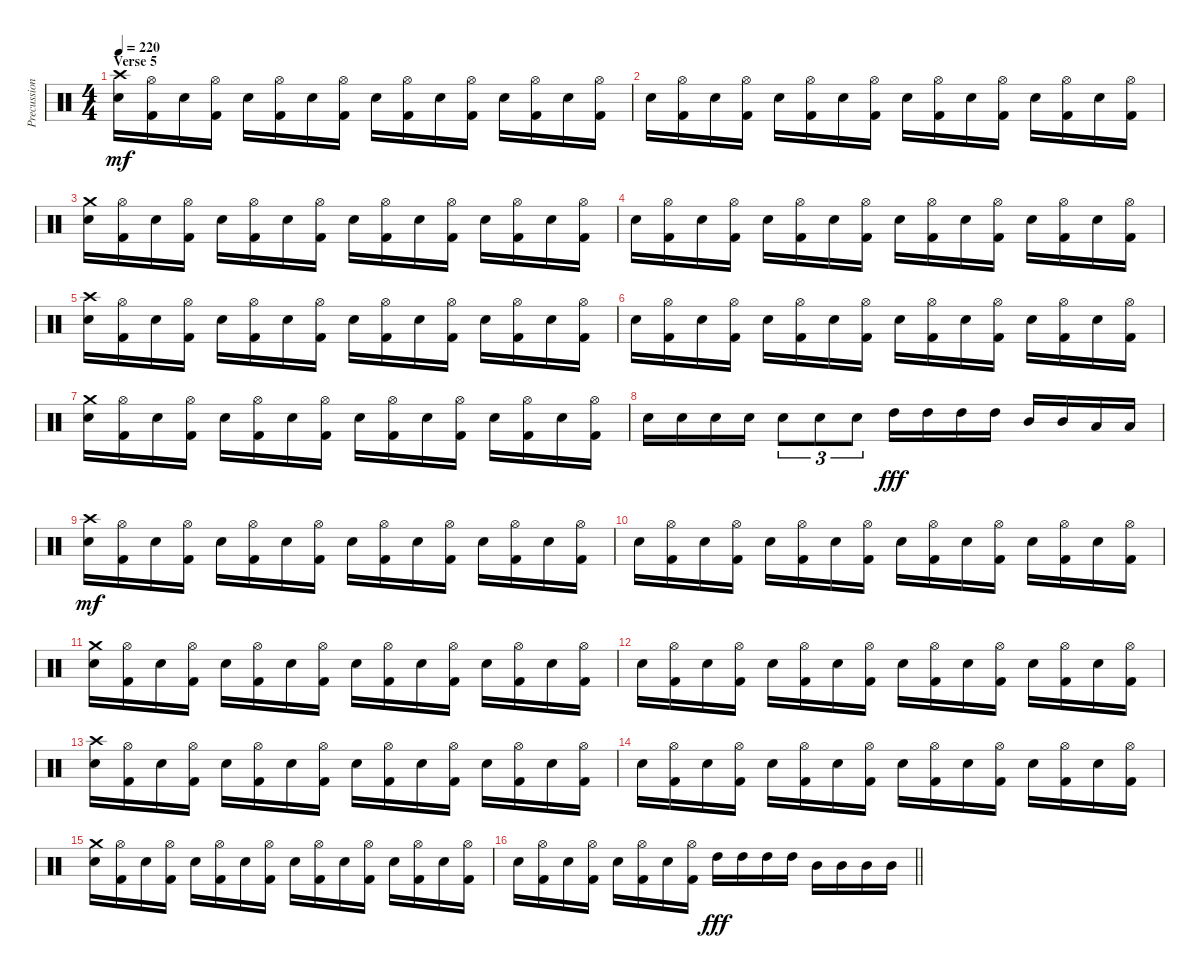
\track ("Precussion" "Precussion") {instrument percussion}
\staff {score}
\articulation defaults
\ts (4 4)
\section ("" "Verse 5")
\tempo 220
\clef neutral
\ks c
("Crash high (hit)" "Electric Snare (hit)").16{dy mf} ("Hi-Hat (open)" "Kick (hit) 2").16 "Electric Snare (hit)".16 ("Hi-Hat (open)" "Kick (hit) 2").16 "Electric Snare (hit)".16 ("Hi-Hat (open)" "Kick (hit) 2").16 "Electric Snare (hit)".16 ("Hi-Hat (open)" "Kick (hit) 2").16 "Electric Snare (hit)".16 ("Hi-Hat (open)" "Kick (hit) 2").16 "Electric Snare (hit)".16 ("Hi-Hat (open)" "Kick (hit) 2").16 "Electric Snare (hit)".16 ("Hi-Hat (open)" "Kick (hit) 2").16 "Electric Snare (hit)".16 ("Hi-Hat (open)" "Kick (hit) 2").16 |
"Electric Snare (hit)".16 ("Hi-Hat (open)" "Kick (hit) 2").16 "Electric Snare (hit)".16 ("Hi-Hat (open)" "Kick (hit) 2").16 "Electric Snare (hit)".16 ("Hi-Hat (open)" "Kick (hit) 2").16 "Electric Snare (hit)".16 ("Hi-Hat (open)" "Kick (hit) 2").16 "Electric Snare (hit)".16 ("Hi-Hat (open)" "Kick (hit) 2").16 "Electric Snare (hit)".16 ("Hi-Hat (open)" "Kick (hit) 2").16 "Electric Snare (hit)".16 ("Hi-Hat (open)" "Kick (hit) 2").16 "Electric Snare (hit)".16 ("Hi-Hat (open)" "Kick (hit) 2").16 |
("Crash medium (hit)" "Electric Snare (hit)").16 ("Hi-Hat (open)" "Kick (hit) 2").16 "Electric Snare (hit)".16 ("Hi-Hat (open)" "Kick (hit) 2").16 "Electric Snare (hit)".16 ("Hi-Hat (open)" "Kick (hit) 2").16 "Electric Snare (hit)".16 ("Hi-Hat (open)" "Kick (hit) 2").16 "Electric Snare (hit)".16 ("Hi-Hat (open)" "Kick (hit) 2").16 "Electric Snare (hit)".16 ("Hi-Hat (open)" "Kick (hit) 2").16 "Electric Snare (hit)".16 ("Hi-Hat (open)" "Kick (hit) 2").16 "Electric Snare (hit)".16 ("Hi-Hat (open)" "Kick (hit) 2").16 |
"Electric Snare (hit)".16 ("Hi-Hat (open)" "Kick (hit) 2").16 "Electric Snare (hit)".16 ("Hi-Hat (open)" "Kick (hit) 2").16 "Electric Snare (hit)".16 ("Hi-Hat (open)" "Kick (hit) 2").16 "Electric Snare (hit)".16 ("Hi-Hat (open)" "Kick (hit) 2").16 "Electric Snare (hit)".16 ("Hi-Hat (open)" "Kick (hit) 2").16 "Electric Snare (hit)".16 ("Hi-Hat (open)" "Kick (hit) 2").16 "Electric Snare (hit)".16 ("Hi-Hat (open)" "Kick (hit) 2").16 "Electric Snare (hit)".16 ("Hi-Hat (open)" "Kick (hit) 2").16 |
("Crash high (hit)" "Electric Snare (hit)").16 ("Hi-Hat (open)" "Kick (hit) 2").16 "Electric Snare (hit)".16 ("Hi-Hat (open)" "Kick (hit) 2").16 "Electric Snare (hit)".16 ("Hi-Hat (open)" "Kick (hit) 2").16 "Electric Snare (hit)".16 ("Hi-Hat (open)" "Kick (hit) 2").16 "Electric Snare (hit)".16 ("Hi-Hat (open)" "Kick (hit) 2").16 "Electric Snare (hit)".16 ("Hi-Hat (open)" "Kick (hit) 2").16 "Electric Snare (hit)".16 ("Hi-Hat (open)" "Kick (hit) 2").16 "Electric Snare (hit)".16 ("Hi-Hat (open)" "Kick (hit) 2").16 |
"Electric Snare (hit)".16 ("Hi-Hat (open)" "Kick (hit) 2").16 "Electric Snare (hit)".16 ("Hi-Hat (open)" "Kick (hit) 2").16 "Electric Snare (hit)".16 ("Hi-Hat (open)" "Kick (hit) 2").16 "Electric Snare (hit)".16 ("Hi-Hat (open)" "Kick (hit) 2").16 "Electric Snare (hit)".16 ("Hi-Hat (open)" "Kick (hit) 2").16 "Electric Snare (hit)".16 ("Hi-Hat (open)" "Kick (hit) 2").16 "Electric Snare (hit)".16 ("Hi-Hat (open)" "Kick (hit) 2").16 "Electric Snare (hit)".16 ("Hi-Hat (open)" "Kick (hit) 2").16 |
("Crash medium (hit)" "Electric Snare (hit)").16 ("Hi-Hat (open)" "Kick (hit) 2").16 "Electric Snare (hit)".16 ("Hi-Hat (open)" "Kick (hit) 2").16 "Electric Snare (hit)".16 ("Hi-Hat (open)" "Kick (hit) 2").16 "Electric Snare (hit)".16 ("Hi-Hat (open)" "Kick (hit) 2").16 "Electric Snare (hit)".16 ("Hi-Hat (open)" "Kick (hit) 2").16 "Electric Snare (hit)".16 ("Hi-Hat (open)" "Kick (hit) 2").16 "Electric Snare (hit)".16 ("Hi-Hat (open)" "Kick (hit) 2").16 "Electric Snare (hit)".16 ("Hi-Hat (open)" "Kick (hit) 2").16 |
"Electric Snare (hit)".16 "Electric Snare (hit)".16 "Electric Snare (hit)".16 "Electric Snare (hit)".16 "Electric Snare (hit)".8{tu (3 2)} "Electric Snare (hit)".8{tu (3 2)} "Electric Snare (hit)".8{tu (3 2)} "High Tom (hit)".16{dy fff} "High Tom (hit)".16 "High Tom (hit)".16 "High Tom (hit)".16 "Mid Tom (hit)".16 "Mid Tom (hit)".16 "Low Tom (hit)".16 "Low Tom (hit)".16 |
("Crash high (hit)" "Electric Snare (hit)").16{dy mf} ("Hi-Hat (open)" "Kick (hit) 2").16 "Electric Snare (hit)".16 ("Hi-Hat (open)" "Kick (hit) 2").16 "Electric Snare (hit)".16 ("Hi-Hat (open)" "Kick (hit) 2").16 "Electric Snare (hit)".16 ("Hi-Hat (open)" "Kick (hit) 2").16 "Electric Snare (hit)".16 ("Hi-Hat (open)" "Kick (hit) 2").16 "Electric Snare (hit)".16 ("Hi-Hat (open)" "Kick (hit) 2").16 "Electric Snare (hit)".16 ("Hi-Hat (open)" "Kick (hit) 2").16 "Electric Snare (hit)".16 ("Hi-Hat (open)" "Kick (hit) 2").16 |
"Electric Snare (hit)".16 ("Hi-Hat (open)" "Kick (hit) 2").16 "Electric Snare (hit)".16 ("Hi-Hat (open)" "Kick (hit) 2").16 "Electric Snare (hit)".16 ("Hi-Hat (open)" "Kick (hit) 2").16 "Electric Snare (hit)".16 ("Hi-Hat (open)" "Kick (hit) 2").16 "Electric Snare (hit)".16 ("Hi-Hat (open)" "Kick (hit) 2").16 "Electric Snare (hit)".16 ("Hi-Hat (open)" "Kick (hit) 2").16 "Electric Snare (hit)".16 ("Hi-Hat (open)" "Kick (hit) 2").16 "Electric Snare (hit)".16 ("Hi-Hat (open)" "Kick (hit) 2").16 |
("Crash medium (hit)" "Electric Snare (hit)").16 ("Hi-Hat (open)" "Kick (hit) 2").16 "Electric Snare (hit)".16 ("Hi-Hat (open)" "Kick (hit) 2").16 "Electric Snare (hit)".16 ("Hi-Hat (open)" "Kick (hit) 2").16 "Electric Snare (hit)".16 ("Hi-Hat (open)" "Kick (hit) 2").16 "Electric Snare (hit)".16 ("Hi-Hat (open)" "Kick (hit) 2").16 "Electric Snare (hit)".16 ("Hi-Hat (open)" "Kick (hit) 2").16 "Electric Snare (hit)".16 ("Hi-Hat (open)" "Kick (hit) 2").16 "Electric Snare (hit)".16 ("Hi-Hat (open)" "Kick (hit) 2").16 |
"Electric Snare (hit)".16 ("Hi-Hat (open)" "Kick (hit) 2").16 "Electric Snare (hit)".16 ("Hi-Hat (open)" "Kick (hit) 2").16 "Electric Snare (hit)".16 ("Hi-Hat (open)" "Kick (hit) 2").16 "Electric Snare (hit)".16 ("Hi-Hat (open)" "Kick (hit) 2").16 "Electric Snare (hit)".16 ("Hi-Hat (open)" "Kick (hit) 2").16 "Electric Snare (hit)".16 ("Hi-Hat (open)" "Kick (hit) 2").16 "Electric Snare (hit)".16 ("Hi-Hat (open)" "Kick (hit) 2").16 "Electric Snare (hit)".16 ("Hi-Hat (open)" "Kick (hit) 2").16 |
("Crash high (hit)" "Electric Snare (hit)").16 ("Hi-Hat (open)" "Kick (hit) 2").16 "Electric Snare (hit)".16 ("Hi-Hat (open)" "Kick (hit) 2").16 "Electric Snare (hit)".16 ("Hi-Hat (open)" "Kick (hit) 2").16 "Electric Snare (hit)".16 ("Hi-Hat (open)" "Kick (hit) 2").16 "Electric Snare (hit)".16 ("Hi-Hat (open)" "Kick (hit) 2").16 "Electric Snare (hit)".16 ("Hi-Hat (open)" "Kick (hit) 2").16 "Electric Snare (hit)".16 ("Hi-Hat (open)" "Kick (hit) 2").16 "Electric Snare (hit)".16 ("Hi-Hat (open)" "Kick (hit) 2").16 |
"Electric Snare (hit)".16 ("Hi-Hat (open)" "Kick (hit) 2").16 "Electric Snare (hit)".16 ("Hi-Hat (open)" "Kick (hit) 2").16 "Electric Snare (hit)".16 ("Hi-Hat (open)" "Kick (hit) 2").16 "Electric Snare (hit)".16 ("Hi-Hat (open)" "Kick (hit) 2").16 "Electric Snare (hit)".16 ("Hi-Hat (open)" "Kick (hit) 2").16 "Electric Snare (hit)".16 ("Hi-Hat (open)" "Kick (hit) 2").16 "Electric Snare (hit)".16 ("Hi-Hat (open)" "Kick (hit) 2").16 "Electric Snare (hit)".16 ("Hi-Hat (open)" "Kick (hit) 2").16 |
("Crash medium (hit)" "Electric Snare (hit)").16 ("Hi-Hat (open)" "Kick (hit) 2").16 "Electric Snare (hit)".16 ("Hi-Hat (open)" "Kick (hit) 2").16 "Electric Snare (hit)".16 ("Hi-Hat (open)" "Kick (hit) 2").16 "Electric Snare (hit)".16 ("Hi-Hat (open)" "Kick (hit) 2").16 "Electric Snare (hit)".16 ("Hi-Hat (open)" "Kick (hit) 2").16 "Electric Snare (hit)".16 ("Hi-Hat (open)" "Kick (hit) 2").16 "Electric Snare (hit)".16 ("Hi-Hat (open)" "Kick (hit) 2").16 "Electric Snare (hit)".16 ("Hi-Hat (open)" "Kick (hit) 2").16 |
\barLineRight lightlight "Electric Snare (hit)".16
("Hi-Hat (open)" "Kick (hit) 2").16 "Electric Snare (hit)".16 ("Hi-Hat (open)" "Kick (hit) 2").16 "Electric Snare (hit)".16 ("Hi-Hat (open)" "Kick (hit) 2").16 "Electric Snare (hit)".16 ("Hi-Hat (open)" "Kick (hit) 2").16 "High Tom (hit)".16{dy fff} "High Tom (hit)".16 "High Tom (hit)".16 "High Tom (hit)".16 "Mid Tom (hit)".16 "Mid Tom (hit)".16 "Mid Tom (hit)".16 "Mid Tom (hit)".16
